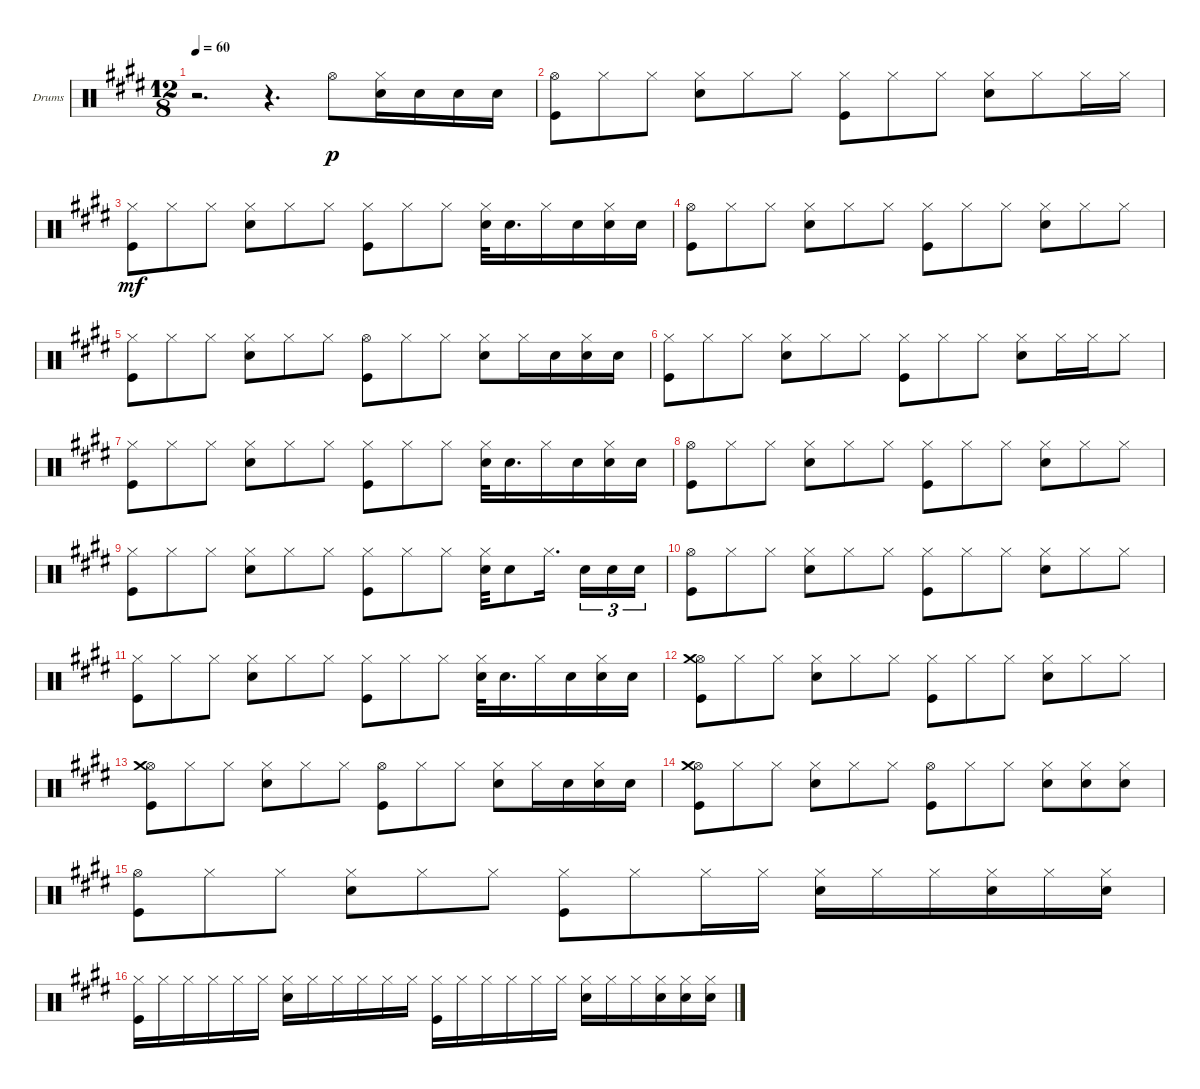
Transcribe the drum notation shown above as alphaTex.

\defaultSystemsLayout 4
\bracketExtendMode groupsimilarinstruments
\firstSystemTrackNameOrientation horizontal
\otherSystemsTrackNameOrientation horizontal
\track ("Drumkit" "Drums") {instrument percussion}
\staff {score}
\articulation defaults
\ts (12 8)
\tempo 60
\clef neutral
\ks e
r.2{d dy p} r.4{d} "Hi-Hat (open)".8 ("Hi-Hat (closed)" "Snare (hit) 2").16 "Snare (hit) 2".16 "Snare (hit) 2".16 "Snare (hit) 2".16 |
("Hi-Hat (open)" "Kick (hit)").8 "Hi-Hat (closed)".8 "Hi-Hat (closed)".8 ("Hi-Hat (closed)" "Snare (hit) 2").8 "Hi-Hat (closed)".8 "Hi-Hat (closed)".8 ("Hi-Hat (closed)" "Kick (hit)").8 "Hi-Hat (closed)".8 "Hi-Hat (closed)".8 ("Snare (hit) 2" "Hi-Hat (closed)").8 "Hi-Hat (closed)".8 "Hi-Hat (closed)".16 "Hi-Hat (closed)".16 |
("Hi-Hat (closed)" "Kick (hit)").8{dy mf} "Hi-Hat (closed)".8 "Hi-Hat (closed)".8 ("Hi-Hat (closed)" "Snare (hit) 2").8 "Hi-Hat (closed)".8 "Hi-Hat (closed)".8 ("Hi-Hat (closed)" "Kick (hit)").8 "Hi-Hat (closed)".8 "Hi-Hat (closed)".8 ("Hi-Hat (closed)" "Snare (hit) 2").32 "Snare (hit) 2".16{d} "Hi-Hat (closed)".16 "Snare (hit) 2".16 ("Snare (hit) 2" "Hi-Hat (closed)").16 "Snare (hit) 2".16 |
("Hi-Hat (open)" "Kick (hit)").8 "Hi-Hat (closed)".8 "Hi-Hat (closed)".8 ("Hi-Hat (closed)" "Snare (hit) 2").8 "Hi-Hat (closed)".8 "Hi-Hat (closed)".8 ("Hi-Hat (closed)" "Kick (hit)").8 "Hi-Hat (closed)".8 "Hi-Hat (closed)".8 ("Hi-Hat (closed)" "Snare (hit) 2").8 "Hi-Hat (closed)".8 "Hi-Hat (closed)".8 |
("Hi-Hat (closed)" "Kick (hit)").8 "Hi-Hat (closed)".8 "Hi-Hat (closed)".8 ("Hi-Hat (closed)" "Snare (hit) 2").8 "Hi-Hat (closed)".8 "Hi-Hat (closed)".8 ("Hi-Hat (open)" "Kick (hit)").8 "Hi-Hat (closed)".8 "Hi-Hat (closed)".8 ("Hi-Hat (closed)" "Snare (hit) 2").8 "Hi-Hat (closed)".16 "Snare (hit) 2".16 ("Snare (hit) 2" "Hi-Hat (closed)").16 "Snare (hit) 2".16 |
("Hi-Hat (closed)" "Kick (hit)").8 "Hi-Hat (closed)".8 "Hi-Hat (closed)".8 ("Hi-Hat (closed)" "Snare (hit) 2").8 "Hi-Hat (closed)".8 "Hi-Hat (closed)".8 ("Hi-Hat (closed)" "Kick (hit)").8 "Hi-Hat (closed)".8 "Hi-Hat (closed)".8 ("Hi-Hat (closed)" "Snare (hit) 2").8 "Hi-Hat (closed)".16 "Hi-Hat (closed)".16 "Hi-Hat (closed)".8 |
("Hi-Hat (closed)" "Kick (hit)").8 "Hi-Hat (closed)".8 "Hi-Hat (closed)".8 ("Hi-Hat (closed)" "Snare (hit) 2").8 "Hi-Hat (closed)".8 "Hi-Hat (closed)".8 ("Hi-Hat (closed)" "Kick (hit)").8 "Hi-Hat (closed)".8 "Hi-Hat (closed)".8 ("Hi-Hat (closed)" "Snare (hit) 2").32 "Snare (hit) 2".16{d} "Hi-Hat (closed)".16 "Snare (hit) 2".16 ("Snare (hit) 2" "Hi-Hat (closed)").16 "Snare (hit) 2".16 |
("Hi-Hat (open)" "Kick (hit)").8 "Hi-Hat (closed)".8 "Hi-Hat (closed)".8 ("Hi-Hat (closed)" "Snare (hit) 2").8 "Hi-Hat (closed)".8 "Hi-Hat (closed)".8 ("Hi-Hat (closed)" "Kick (hit)").8 "Hi-Hat (closed)".8 "Hi-Hat (closed)".8 ("Hi-Hat (closed)" "Snare (hit) 2").8 "Hi-Hat (closed)".8 "Hi-Hat (closed)".8 |
("Hi-Hat (closed)" "Kick (hit)").8 "Hi-Hat (closed)".8 "Hi-Hat (closed)".8 ("Hi-Hat (closed)" "Snare (hit) 2").8 "Hi-Hat (closed)".8 "Hi-Hat (closed)".8 ("Hi-Hat (closed)" "Kick (hit)").8 "Hi-Hat (closed)".8 "Hi-Hat (closed)".8 ("Snare (hit) 2" "Hi-Hat (closed)").32 "Snare (hit) 2".8 "Hi-Hat (closed)".16{d} "Snare (hit) 2".16{tu (3 2)} "Snare (hit) 2".16{tu (3 2)} "Snare (hit) 2".16{tu (3 2)} |
("Hi-Hat (open)" "Kick (hit)").8 "Hi-Hat (closed)".8 "Hi-Hat (closed)".8 ("Hi-Hat (closed)" "Snare (hit) 2").8 "Hi-Hat (closed)".8 "Hi-Hat (closed)".8 ("Hi-Hat (closed)" "Kick (hit)").8 "Hi-Hat (closed)".8 "Hi-Hat (closed)".8 ("Hi-Hat (closed)" "Snare (hit) 2").8 "Hi-Hat (closed)".8 "Hi-Hat (closed)".8 |
("Hi-Hat (closed)" "Kick (hit)").8 "Hi-Hat (closed)".8 "Hi-Hat (closed)".8 ("Hi-Hat (closed)" "Snare (hit) 2").8 "Hi-Hat (closed)".8 "Hi-Hat (closed)".8 ("Hi-Hat (closed)" "Kick (hit)").8 "Hi-Hat (closed)".8 "Hi-Hat (closed)".8 ("Hi-Hat (closed)" "Snare (hit) 2").32 "Snare (hit) 2".16{d} "Hi-Hat (closed)".16 "Snare (hit) 2".16 ("Snare (hit) 2" "Hi-Hat (closed)").16 "Snare (hit) 2".16 |
("Hi-Hat (open)" "Kick (hit)" "Crash medium (hit)").8 "Hi-Hat (closed)".8 "Hi-Hat (closed)".8 ("Hi-Hat (closed)" "Snare (hit) 2").8 "Hi-Hat (closed)".8 "Hi-Hat (closed)".8 ("Hi-Hat (closed)" "Kick (hit)").8 "Hi-Hat (closed)".8 "Hi-Hat (closed)".8 ("Hi-Hat (closed)" "Snare (hit) 2").8 "Hi-Hat (closed)".8 "Hi-Hat (closed)".8 |
("Hi-Hat (open)" "Kick (hit)" "Crash medium (hit)").8 "Hi-Hat (closed)".8 "Hi-Hat (closed)".8 ("Hi-Hat (closed)" "Snare (hit) 2").8 "Hi-Hat (closed)".8 "Hi-Hat (closed)".8 ("Hi-Hat (open)" "Kick (hit)").8 "Hi-Hat (closed)".8 "Hi-Hat (closed)".8 ("Hi-Hat (closed)" "Snare (hit) 2").8 "Hi-Hat (closed)".16 "Snare (hit) 2".16 ("Snare (hit) 2" "Hi-Hat (closed)").16 "Snare (hit) 2".16 |
("Hi-Hat (open)" "Crash medium (hit)" "Kick (hit)").8 "Hi-Hat (closed)".8 "Hi-Hat (closed)".8 ("Hi-Hat (closed)" "Snare (hit) 2").8 "Hi-Hat (closed)".8 "Hi-Hat (closed)".8 ("Hi-Hat (open)" "Kick (hit)").8 "Hi-Hat (closed)".8 "Hi-Hat (closed)".8 ("Hi-Hat (closed)" "Snare (hit) 2").8 ("Snare (hit) 2" "Hi-Hat (closed)").8 ("Snare (hit) 2" "Hi-Hat (closed)").8 |
("Hi-Hat (open)" "Kick (hit)").8 "Hi-Hat (closed)".8 "Hi-Hat (closed)".8 ("Hi-Hat (closed)" "Snare (hit) 2").8 "Hi-Hat (closed)".8 "Hi-Hat (closed)".8 ("Hi-Hat (closed)" "Kick (hit)").8 "Hi-Hat (closed)".8 "Hi-Hat (closed)".16 "Hi-Hat (closed)".16 ("Hi-Hat (closed)" "Snare (hit) 2").16 "Hi-Hat (closed)".16 "Hi-Hat (closed)".16 ("Hi-Hat (closed)" "Snare (hit) 2").16 "Hi-Hat (closed)".16 ("Hi-Hat (closed)" "Snare (hit) 2").16 |
("Hi-Hat (closed)" "Kick (hit)").16 "Hi-Hat (closed)".16 "Hi-Hat (closed)".16 "Hi-Hat (closed)".16 "Hi-Hat (closed)".16 "Hi-Hat (closed)".16 ("Hi-Hat (closed)" "Snare (hit) 2").16 "Hi-Hat (closed)".16 "Hi-Hat (closed)".16 "Hi-Hat (closed)".16 "Hi-Hat (closed)".16 "Hi-Hat (closed)".16 ("Hi-Hat (closed)" "Kick (hit)").16 "Hi-Hat (closed)".16 "Hi-Hat (closed)".16 "Hi-Hat (closed)".16 "Hi-Hat (closed)".16 "Hi-Hat (closed)".16 ("Hi-Hat (closed)" "Snare (hit) 2").16 "Hi-Hat (closed)".16 "Hi-Hat (closed)".16 ("Hi-Hat (closed)" "Snare (hit) 2").16 ("Hi-Hat (closed)" "Snare (hit) 2").16 ("Hi-Hat (closed)" "Snare (hit) 2").16
